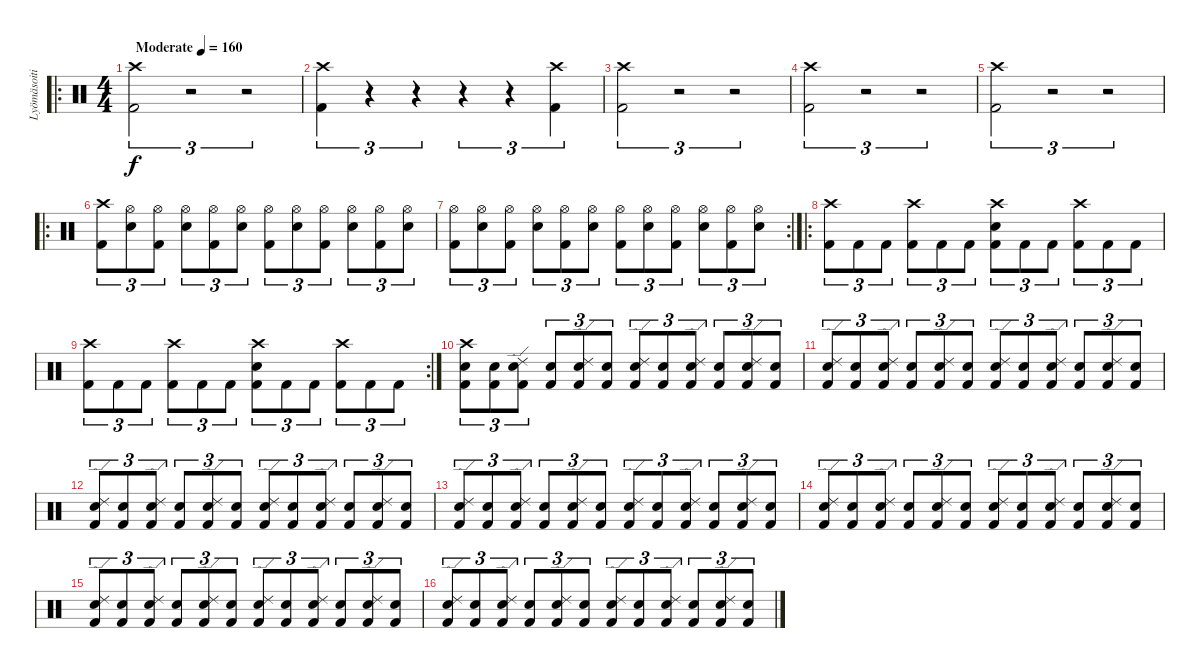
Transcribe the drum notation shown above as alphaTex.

\track ("Lyömäsoitin" "Lyömäsoiti") {instrument percussion}
\staff {score}
\articulation defaults
\ro
\ts (4 4)
\tempo (160 "Moderate")
\clef neutral
\ks c
("Crash high (hit)" "Kick (hit) 2").2{tu (3 2) dy f} r.2{tu (3 2)} r.2{tu (3 2)} |
("Crash high (hit)" "Kick (hit) 2").4{tu (3 2)} r.4{tu (3 2)} r.4{tu (3 2)} r.4{tu (3 2)} r.4{tu (3 2)} ("Crash high (hit)" "Kick (hit) 2").4{tu (3 2)} |
("Crash high (hit)" "Kick (hit) 2").2{tu (3 2)} r.2{tu (3 2)} r.2{tu (3 2)} |
("Crash high (hit)" "Kick (hit) 2").2{tu (3 2)} r.2{tu (3 2)} r.2{tu (3 2)} |
("Crash high (hit)" "Kick (hit) 2").2{tu (3 2)} r.2{tu (3 2)} r.2{tu (3 2)} |
\ro
("Crash high (hit)" "Kick (hit) 2").8{tu (3 2)} ("Hi-Hat (open)" "Snare (hit) 2").8{tu (3 2)} ("Hi-Hat (open)" "Kick (hit) 2").8{tu (3 2)} ("Hi-Hat (open)" "Snare (hit) 2").8{tu (3 2)} ("Hi-Hat (open)" "Kick (hit) 2").8{tu (3 2)} ("Hi-Hat (open)" "Snare (hit) 2").8{tu (3 2)} ("Hi-Hat (open)" "Kick (hit) 2").8{tu (3 2)} ("Hi-Hat (open)" "Snare (hit) 2").8{tu (3 2)} ("Hi-Hat (open)" "Kick (hit) 2").8{tu (3 2)} ("Hi-Hat (open)" "Snare (hit) 2").8{tu (3 2)} ("Hi-Hat (open)" "Kick (hit) 2").8{tu (3 2)} ("Hi-Hat (open)" "Snare (hit) 2").8{tu (3 2)} |
\rc 2
("Hi-Hat (open)" "Kick (hit) 2").8{tu (3 2)} ("Hi-Hat (open)" "Snare (hit) 2").8{tu (3 2)} ("Hi-Hat (open)" "Kick (hit) 2").8{tu (3 2)} ("Hi-Hat (open)" "Snare (hit) 2").8{tu (3 2)} ("Hi-Hat (open)" "Kick (hit) 2").8{tu (3 2)} ("Hi-Hat (open)" "Snare (hit) 2").8{tu (3 2)} ("Hi-Hat (open)" "Kick (hit) 2").8{tu (3 2)} ("Hi-Hat (open)" "Snare (hit) 2").8{tu (3 2)} ("Hi-Hat (open)" "Kick (hit) 2").8{tu (3 2)} ("Hi-Hat (open)" "Snare (hit) 2").8{tu (3 2)} ("Hi-Hat (open)" "Kick (hit) 2").8{tu (3 2)} ("Hi-Hat (open)" "Snare (hit) 2").8{tu (3 2)} |
\ro
("Crash high (hit)" "Kick (hit) 2").8{tu (3 2)} "Kick (hit) 2".8{tu (3 2)} "Kick (hit) 2".8{tu (3 2)} ("Crash high (hit)" "Kick (hit) 2").8{tu (3 2)} "Kick (hit) 2".8{tu (3 2)} "Kick (hit) 2".8{tu (3 2)} ("Crash high (hit)" "Snare (hit) 2" "Kick (hit) 2").8{tu (3 2)} "Kick (hit) 2".8{tu (3 2)} "Kick (hit) 2".8{tu (3 2)} ("Crash high (hit)" "Kick (hit) 2").8{tu (3 2)} "Kick (hit) 2".8{tu (3 2)} "Kick (hit) 2".8{tu (3 2)} |
\rc 2
("Crash high (hit)" "Kick (hit) 2").8{tu (3 2)} "Kick (hit) 2".8{tu (3 2)} "Kick (hit) 2".8{tu (3 2)} ("Crash high (hit)" "Kick (hit) 2").8{tu (3 2)} "Kick (hit) 2".8{tu (3 2)} "Kick (hit) 2".8{tu (3 2)} ("Crash high (hit)" "Snare (hit) 2" "Kick (hit) 2").8{tu (3 2)} "Kick (hit) 2".8{tu (3 2)} "Kick (hit) 2".8{tu (3 2)} ("Crash high (hit)" "Kick (hit) 2").8{tu (3 2)} "Kick (hit) 2".8{tu (3 2)} "Kick (hit) 2".8{tu (3 2)} |
("Crash high (hit)" "Snare (hit) 2" "Kick (hit) 2").8{tu (3 2)} ("Snare (hit) 2" "Kick (hit) 2").8{tu (3 2)} ("Ride (edge) 2" "Snare (hit) 2" "Kick (hit) 2").8{tu (3 2)} ("Snare (hit) 2" "Kick (hit) 2").8{tu (3 2)} ("Ride (edge) 2" "Snare (hit) 2" "Kick (hit) 2").8{tu (3 2)} ("Snare (hit) 2" "Kick (hit) 2").8{tu (3 2)} ("Ride (edge) 2" "Snare (hit) 2" "Kick (hit) 2").8{tu (3 2)} ("Snare (hit) 2" "Kick (hit) 2").8{tu (3 2)} ("Ride (edge) 2" "Snare (hit) 2" "Kick (hit) 2").8{tu (3 2)} ("Snare (hit) 2" "Kick (hit) 2").8{tu (3 2)} ("Ride (edge) 2" "Snare (hit) 2" "Kick (hit) 2").8{tu (3 2)} ("Snare (hit) 2" "Kick (hit) 2").8{tu (3 2)} |
("Ride (edge) 2" "Snare (hit) 2" "Kick (hit) 2").8{tu (3 2)} ("Snare (hit) 2" "Kick (hit) 2").8{tu (3 2)} ("Ride (edge) 2" "Snare (hit) 2" "Kick (hit) 2").8{tu (3 2)} ("Snare (hit) 2" "Kick (hit) 2").8{tu (3 2)} ("Ride (edge) 2" "Snare (hit) 2" "Kick (hit) 2").8{tu (3 2)} ("Snare (hit) 2" "Kick (hit) 2").8{tu (3 2)} ("Ride (edge) 2" "Snare (hit) 2" "Kick (hit) 2").8{tu (3 2)} ("Snare (hit) 2" "Kick (hit) 2").8{tu (3 2)} ("Ride (edge) 2" "Snare (hit) 2" "Kick (hit) 2").8{tu (3 2)} ("Snare (hit) 2" "Kick (hit) 2").8{tu (3 2)} ("Ride (edge) 2" "Snare (hit) 2" "Kick (hit) 2").8{tu (3 2)} ("Snare (hit) 2" "Kick (hit) 2").8{tu (3 2)} |
("Ride (edge) 2" "Snare (hit) 2" "Kick (hit) 2").8{tu (3 2)} ("Snare (hit) 2" "Kick (hit) 2").8{tu (3 2)} ("Ride (edge) 2" "Snare (hit) 2" "Kick (hit) 2").8{tu (3 2)} ("Snare (hit) 2" "Kick (hit) 2").8{tu (3 2)} ("Ride (edge) 2" "Snare (hit) 2" "Kick (hit) 2").8{tu (3 2)} ("Snare (hit) 2" "Kick (hit) 2").8{tu (3 2)} ("Ride (edge) 2" "Snare (hit) 2" "Kick (hit) 2").8{tu (3 2)} ("Snare (hit) 2" "Kick (hit) 2").8{tu (3 2)} ("Ride (edge) 2" "Snare (hit) 2" "Kick (hit) 2").8{tu (3 2)} ("Snare (hit) 2" "Kick (hit) 2").8{tu (3 2)} ("Ride (edge) 2" "Snare (hit) 2" "Kick (hit) 2").8{tu (3 2)} ("Snare (hit) 2" "Kick (hit) 2").8{tu (3 2)} |
("Ride (edge) 2" "Snare (hit) 2" "Kick (hit) 2").8{tu (3 2)} ("Snare (hit) 2" "Kick (hit) 2").8{tu (3 2)} ("Ride (edge) 2" "Snare (hit) 2" "Kick (hit) 2").8{tu (3 2)} ("Snare (hit) 2" "Kick (hit) 2").8{tu (3 2)} ("Ride (edge) 2" "Snare (hit) 2" "Kick (hit) 2").8{tu (3 2)} ("Snare (hit) 2" "Kick (hit) 2").8{tu (3 2)} ("Ride (edge) 2" "Snare (hit) 2" "Kick (hit) 2").8{tu (3 2)} ("Snare (hit) 2" "Kick (hit) 2").8{tu (3 2)} ("Ride (edge) 2" "Snare (hit) 2" "Kick (hit) 2").8{tu (3 2)} ("Snare (hit) 2" "Kick (hit) 2").8{tu (3 2)} ("Ride (edge) 2" "Snare (hit) 2" "Kick (hit) 2").8{tu (3 2)} ("Snare (hit) 2" "Kick (hit) 2").8{tu (3 2)} |
("Ride (edge) 2" "Snare (hit) 2" "Kick (hit) 2").8{tu (3 2)} ("Snare (hit) 2" "Kick (hit) 2").8{tu (3 2)} ("Ride (edge) 2" "Snare (hit) 2" "Kick (hit) 2").8{tu (3 2)} ("Snare (hit) 2" "Kick (hit) 2").8{tu (3 2)} ("Ride (edge) 2" "Snare (hit) 2" "Kick (hit) 2").8{tu (3 2)} ("Snare (hit) 2" "Kick (hit) 2").8{tu (3 2)} ("Ride (edge) 2" "Snare (hit) 2" "Kick (hit) 2").8{tu (3 2)} ("Snare (hit) 2" "Kick (hit) 2").8{tu (3 2)} ("Ride (edge) 2" "Snare (hit) 2" "Kick (hit) 2").8{tu (3 2)} ("Snare (hit) 2" "Kick (hit) 2").8{tu (3 2)} ("Ride (edge) 2" "Snare (hit) 2" "Kick (hit) 2").8{tu (3 2)} ("Snare (hit) 2" "Kick (hit) 2").8{tu (3 2)} |
("Ride (edge) 2" "Snare (hit) 2" "Kick (hit) 2").8{tu (3 2)} ("Snare (hit) 2" "Kick (hit) 2").8{tu (3 2)} ("Ride (edge) 2" "Snare (hit) 2" "Kick (hit) 2").8{tu (3 2)} ("Snare (hit) 2" "Kick (hit) 2").8{tu (3 2)} ("Ride (edge) 2" "Snare (hit) 2" "Kick (hit) 2").8{tu (3 2)} ("Snare (hit) 2" "Kick (hit) 2").8{tu (3 2)} ("Ride (edge) 2" "Snare (hit) 2" "Kick (hit) 2").8{tu (3 2)} ("Snare (hit) 2" "Kick (hit) 2").8{tu (3 2)} ("Ride (edge) 2" "Snare (hit) 2" "Kick (hit) 2").8{tu (3 2)} ("Snare (hit) 2" "Kick (hit) 2").8{tu (3 2)} ("Ride (edge) 2" "Snare (hit) 2" "Kick (hit) 2").8{tu (3 2)} ("Snare (hit) 2" "Kick (hit) 2").8{tu (3 2)} |
("Ride (edge) 2" "Snare (hit) 2" "Kick (hit) 2").8{tu (3 2)} ("Snare (hit) 2" "Kick (hit) 2").8{tu (3 2)} ("Ride (edge) 2" "Snare (hit) 2" "Kick (hit) 2").8{tu (3 2)} ("Snare (hit) 2" "Kick (hit) 2").8{tu (3 2)} ("Ride (edge) 2" "Snare (hit) 2" "Kick (hit) 2").8{tu (3 2)} ("Snare (hit) 2" "Kick (hit) 2").8{tu (3 2)} ("Ride (edge) 2" "Snare (hit) 2" "Kick (hit) 2").8{tu (3 2)} ("Snare (hit) 2" "Kick (hit) 2").8{tu (3 2)} ("Ride (edge) 2" "Snare (hit) 2" "Kick (hit) 2").8{tu (3 2)} ("Snare (hit) 2" "Kick (hit) 2").8{tu (3 2)} ("Ride (edge) 2" "Snare (hit) 2" "Kick (hit) 2").8{tu (3 2)} ("Snare (hit) 2" "Kick (hit) 2").8{tu (3 2)}
